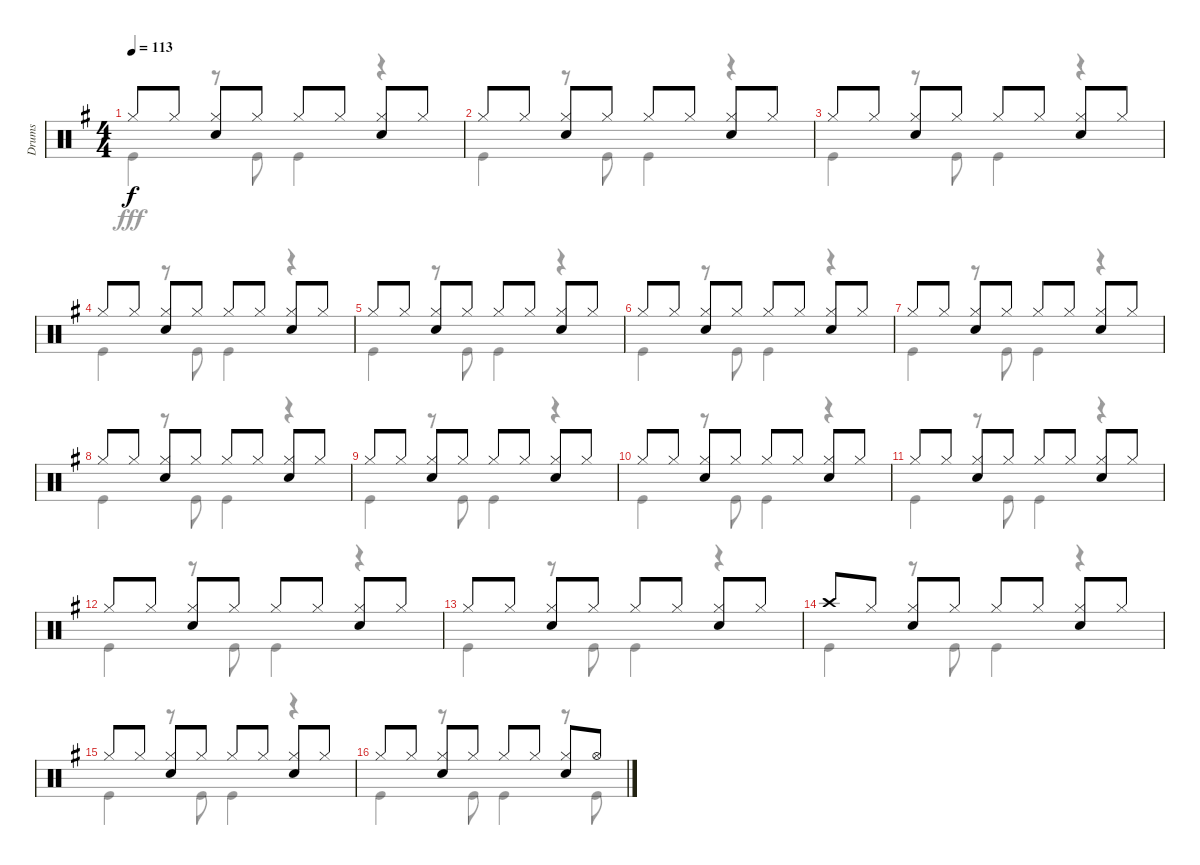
\track ("Drums" "Drums") {instrument percussion}
\staff {score}
\articulation defaults
\voice
\ts (4 4)
\tempo 113
\clef neutral
\ks g "Hi-Hat (closed)".8{dy f} "Hi-Hat (closed)".8
("Hi-Hat (closed)" "Snare (hit) 2").8 "Hi-Hat (closed)".8 "Hi-Hat (closed)".8 "Hi-Hat (closed)".8 ("Hi-Hat (closed)" "Snare (hit) 2").8 "Hi-Hat (closed)".8 |
"Hi-Hat (closed)".8 "Hi-Hat (closed)".8 ("Hi-Hat (closed)" "Snare (hit) 2").8 "Hi-Hat (closed)".8 "Hi-Hat (closed)".8 "Hi-Hat (closed)".8 ("Hi-Hat (closed)" "Snare (hit) 2").8 "Hi-Hat (closed)".8 |
"Hi-Hat (closed)".8 "Hi-Hat (closed)".8 ("Hi-Hat (closed)" "Snare (hit) 2").8 "Hi-Hat (closed)".8 "Hi-Hat (closed)".8 "Hi-Hat (closed)".8 ("Hi-Hat (closed)" "Snare (hit) 2").8 "Hi-Hat (closed)".8 |
"Hi-Hat (closed)".8 "Hi-Hat (closed)".8 ("Hi-Hat (closed)" "Snare (hit) 2").8 "Hi-Hat (closed)".8 "Hi-Hat (closed)".8 "Hi-Hat (closed)".8 ("Hi-Hat (closed)" "Snare (hit) 2").8 "Hi-Hat (closed)".8 |
"Hi-Hat (closed)".8 "Hi-Hat (closed)".8 ("Hi-Hat (closed)" "Snare (hit) 2").8 "Hi-Hat (closed)".8 "Hi-Hat (closed)".8 "Hi-Hat (closed)".8 ("Hi-Hat (closed)" "Snare (hit) 2").8 "Hi-Hat (closed)".8 |
"Hi-Hat (closed)".8 "Hi-Hat (closed)".8 ("Hi-Hat (closed)" "Snare (hit) 2").8 "Hi-Hat (closed)".8 "Hi-Hat (closed)".8 "Hi-Hat (closed)".8 ("Hi-Hat (closed)" "Snare (hit) 2").8 "Hi-Hat (closed)".8 |
"Hi-Hat (closed)".8 "Hi-Hat (closed)".8 ("Hi-Hat (closed)" "Snare (hit) 2").8 "Hi-Hat (closed)".8 "Hi-Hat (closed)".8 "Hi-Hat (closed)".8 ("Hi-Hat (closed)" "Snare (hit) 2").8 "Hi-Hat (closed)".8 |
"Hi-Hat (closed)".8 "Hi-Hat (closed)".8 ("Hi-Hat (closed)" "Snare (hit) 2").8 "Hi-Hat (closed)".8 "Hi-Hat (closed)".8 "Hi-Hat (closed)".8 ("Hi-Hat (closed)" "Snare (hit) 2").8 "Hi-Hat (closed)".8 |
"Hi-Hat (closed)".8 "Hi-Hat (closed)".8 ("Hi-Hat (closed)" "Snare (hit) 2").8 "Hi-Hat (closed)".8 "Hi-Hat (closed)".8 "Hi-Hat (closed)".8 ("Hi-Hat (closed)" "Snare (hit) 2").8 "Hi-Hat (closed)".8 |
"Hi-Hat (closed)".8 "Hi-Hat (closed)".8 ("Hi-Hat (closed)" "Snare (hit) 2").8 "Hi-Hat (closed)".8 "Hi-Hat (closed)".8 "Hi-Hat (closed)".8 ("Hi-Hat (closed)" "Snare (hit) 2").8 "Hi-Hat (closed)".8 |
"Hi-Hat (closed)".8 "Hi-Hat (closed)".8 ("Hi-Hat (closed)" "Snare (hit) 2").8 "Hi-Hat (closed)".8 "Hi-Hat (closed)".8 "Hi-Hat (closed)".8 ("Hi-Hat (closed)" "Snare (hit) 2").8 "Hi-Hat (closed)".8 |
"Hi-Hat (closed)".8 "Hi-Hat (closed)".8 ("Hi-Hat (closed)" "Snare (hit) 2").8 "Hi-Hat (closed)".8 "Hi-Hat (closed)".8 "Hi-Hat (closed)".8 ("Hi-Hat (closed)" "Snare (hit) 2").8 "Hi-Hat (closed)".8 |
"Hi-Hat (closed)".8 "Hi-Hat (closed)".8 ("Hi-Hat (closed)" "Snare (hit) 2").8 "Hi-Hat (closed)".8 "Hi-Hat (closed)".8 "Hi-Hat (closed)".8 ("Hi-Hat (closed)" "Snare (hit) 2").8 "Hi-Hat (closed)".8 |
"Crash high (hit)".8 "Hi-Hat (closed)".8 ("Hi-Hat (closed)" "Snare (hit) 2").8 "Hi-Hat (closed)".8 "Hi-Hat (closed)".8 "Hi-Hat (closed)".8 ("Hi-Hat (closed)" "Snare (hit) 2").8 "Hi-Hat (closed)".8 |
"Hi-Hat (closed)".8 "Hi-Hat (closed)".8 ("Hi-Hat (closed)" "Snare (hit) 2").8 "Hi-Hat (closed)".8 "Hi-Hat (closed)".8 "Hi-Hat (closed)".8 ("Hi-Hat (closed)" "Snare (hit) 2").8 "Hi-Hat (closed)".8 |
"Hi-Hat (closed)".8 "Hi-Hat (closed)".8 ("Hi-Hat (closed)" "Snare (hit) 2").8 "Hi-Hat (closed)".8 "Hi-Hat (closed)".8 "Hi-Hat (closed)".8 ("Hi-Hat (closed)" "Snare (hit) 2").8 "Hi-Hat (open)".8
\voice
\clef neutral
\ottava regular
\simile none
\ks g "Kick (hit)".4{dy fff}
r.8 "Kick (hit)".8 "Kick (hit)".4 r.4 |
"Kick (hit)".4 r.8 "Kick (hit)".8 "Kick (hit)".4 r.4 |
"Kick (hit)".4 r.8 "Kick (hit)".8 "Kick (hit)".4 r.4 |
"Kick (hit)".4 r.8 "Kick (hit)".8 "Kick (hit)".4 r.4 |
"Kick (hit)".4 r.8 "Kick (hit)".8 "Kick (hit)".4 r.4 |
"Kick (hit)".4 r.8 "Kick (hit)".8 "Kick (hit)".4 r.4 |
"Kick (hit)".4 r.8 "Kick (hit)".8 "Kick (hit)".4 r.4 |
"Kick (hit)".4 r.8 "Kick (hit)".8 "Kick (hit)".4 r.4 |
"Kick (hit)".4 r.8 "Kick (hit)".8 "Kick (hit)".4 r.4 |
"Kick (hit)".4 r.8 "Kick (hit)".8 "Kick (hit)".4 r.4 |
"Kick (hit)".4 r.8 "Kick (hit)".8 "Kick (hit)".4 r.4 |
"Kick (hit)".4 r.8 "Kick (hit)".8 "Kick (hit)".4 r.4 |
"Kick (hit)".4 r.8 "Kick (hit)".8 "Kick (hit)".4 r.4 |
"Kick (hit)".4 r.8 "Kick (hit)".8 "Kick (hit)".4 r.4 |
"Kick (hit)".4 r.8 "Kick (hit)".8 "Kick (hit)".4 r.4 |
"Kick (hit)".4 r.8 "Kick (hit)".8 "Kick (hit)".4 r.8 "Kick (hit)".8
